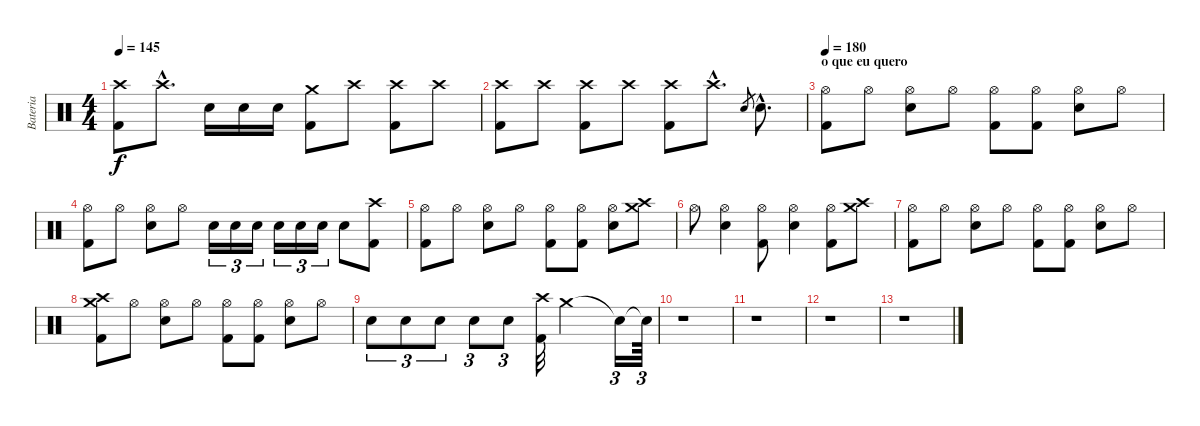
\track ("Bateria" "Bateria") {instrument percussion}
\staff {score}
\articulation defaults
\ts (4 4)
\tempo 145
\clef neutral
\ks c
("Crash high (hit)" "Kick (hit) 2").8{dy f} "Crash high (hit)"{hac}.8{d} "Electric Snare (hit)".16 "Electric Snare (hit)".16 "Electric Snare (hit)".16 ("Crash medium (hit)" "Kick (hit) 2").8 "Crash high (hit)".8 ("Crash high (hit)" "Kick (hit) 2").8 "Crash high (hit)".8 |
("Crash high (hit)" "Kick (hit) 2").8 "Crash high (hit)".8 ("Crash high (hit)" "Kick (hit) 2").8 "Crash high (hit)".8 ("Crash high (hit)" "Kick (hit) 2").8 "Crash high (hit)"{hac}.8{d} "Electric Snare (hit)".8{gr} "Electric Snare (hit)"{hac}.8{d} |
\section ("" "o que eu quero")
\tempo 180
("Hi-Hat (open)" "Kick (hit) 2").8 "Hi-Hat (open)".8 ("Hi-Hat (open)" "Electric Snare (hit)").8 "Hi-Hat (open)".8 ("Hi-Hat (open)" "Kick (hit) 2").8 ("Hi-Hat (open)" "Kick (hit) 2").8 ("Hi-Hat (open)" "Electric Snare (hit)").8 "Hi-Hat (open)".8 |
("Hi-Hat (open)" "Kick (hit) 2").8 "Hi-Hat (open)".8 ("Hi-Hat (open)" "Electric Snare (hit)").8 "Hi-Hat (open)".8 "Electric Snare (hit)".16{tu (3 2)} "Electric Snare (hit)".16{tu (3 2)} "Electric Snare (hit)".16{tu (3 2)} "Electric Snare (hit)".16{tu (3 2)} "Electric Snare (hit)".16{tu (3 2)} "Electric Snare (hit)".16{tu (3 2)} "Electric Snare (hit)".8 ("Crash high (hit)" "Kick (hit) 2").8 |
("Hi-Hat (open)" "Kick (hit) 2").8 "Hi-Hat (open)".8 ("Hi-Hat (open)" "Electric Snare (hit)").8 "Hi-Hat (open)".8 ("Hi-Hat (open)" "Kick (hit) 2").8 ("Hi-Hat (open)" "Kick (hit) 2").8 ("Hi-Hat (open)" "Electric Snare (hit)").8 ("Crash medium (hit)" "Crash high (hit)").8 |
"Hi-Hat (open)".8 ("Hi-Hat (open)" "Electric Snare (hit)").4 ("Hi-Hat (open)" "Kick (hit) 2").8 ("Hi-Hat (open)" "Electric Snare (hit)").4 ("Hi-Hat (open)" "Kick (hit) 2").8 ("Crash medium (hit)" "Crash high (hit)").8 |
("Hi-Hat (open)" "Kick (hit) 2").8 "Hi-Hat (open)".8 ("Hi-Hat (open)" "Electric Snare (hit)").8 "Hi-Hat (open)".8 ("Hi-Hat (open)" "Kick (hit) 2").8 ("Hi-Hat (open)" "Kick (hit) 2").8 ("Hi-Hat (open)" "Electric Snare (hit)").8 "Hi-Hat (open)".8 |
("Crash medium (hit)" "Crash high (hit)" "Kick (hit) 2").8 "Hi-Hat (open)".8 ("Hi-Hat (open)" "Electric Snare (hit)").8 "Hi-Hat (open)".8 ("Hi-Hat (open)" "Kick (hit) 2").8 ("Hi-Hat (open)" "Kick (hit) 2").8 ("Hi-Hat (open)" "Electric Snare (hit)").8 "Hi-Hat (open)".8 |
"Electric Snare (hit)".8{tu (3 2)} "Electric Snare (hit)".8{tu (3 2)} "Electric Snare (hit)".8{tu (3 2)} "Electric Snare (hit)".8{tu (3 2)} "Electric Snare (hit)".8{tu (3 2)} ("Crash high (hit)" "Kick (hit) 2").32 "Crash medium (hit)".2 "Snare (hit)"{t}.16{tu (3 2)} "Snare (hit)"{t}.64{tu (3 2)} |
r.1 |
r.1 |
r.1 |
r.1
